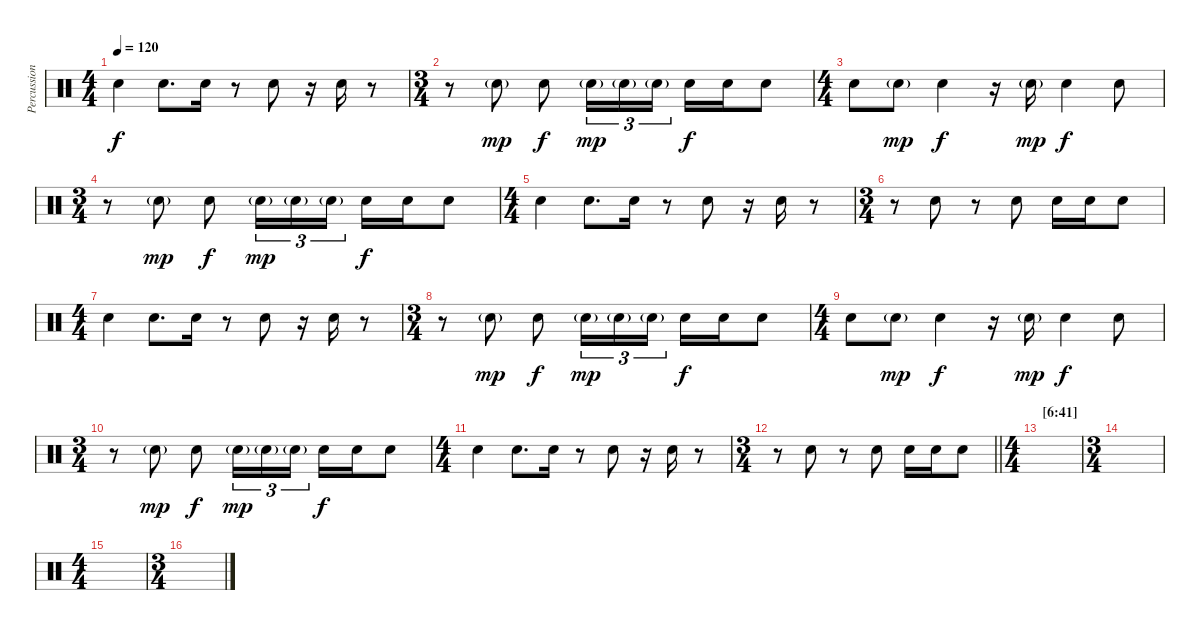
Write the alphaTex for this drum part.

\track ("Percussion" "Percussion") {instrument percussion}
\staff {score}
\articulation defaults
\ts (4 4)
\tempo 120
\clef neutral
\ks c "Electric Snare (hit)".4{dy f} "Electric Snare (hit)".8{d} "Electric Snare (hit)".16
r.8 "Electric Snare (hit)".8 r.16 "Electric Snare (hit)".16 r.8 |
\ts (3 4)
r.8 "Electric Snare (hit)"{g}.8{dy mp} "Electric Snare (hit)".8{dy f} "Electric Snare (hit)"{g}.16{tu (3 2) dy mp} "Electric Snare (hit)"{g}.16{tu (3 2)} "Electric Snare (hit)"{g}.16{tu (3 2)} "Electric Snare (hit)".16{dy f} "Electric Snare (hit)".16 "Electric Snare (hit)".8 |
\ts (4 4)
"Electric Snare (hit)".8 "Electric Snare (hit)"{g}.8{dy mp} "Electric Snare (hit)".4{dy f} r.16 "Electric Snare (hit)"{g}.16{dy mp} "Electric Snare (hit)".4{dy f} "Electric Snare (hit)".8 |
\ts (3 4)
r.8 "Electric Snare (hit)"{g}.8{dy mp} "Electric Snare (hit)".8{dy f} "Electric Snare (hit)"{g}.16{tu (3 2) dy mp} "Electric Snare (hit)"{g}.16{tu (3 2)} "Electric Snare (hit)"{g}.16{tu (3 2)} "Electric Snare (hit)".16{dy f} "Electric Snare (hit)".16 "Electric Snare (hit)".8 |
\ts (4 4)
"Electric Snare (hit)".4 "Electric Snare (hit)".8{d} "Electric Snare (hit)".16 r.8 "Electric Snare (hit)".8 r.16 "Electric Snare (hit)".16 r.8 |
\ts (3 4)
r.8 "Electric Snare (hit)".8 r.8 "Electric Snare (hit)".8 "Electric Snare (hit)".16 "Electric Snare (hit)".16 "Electric Snare (hit)".8 |
\ts (4 4)
"Electric Snare (hit)".4 "Electric Snare (hit)".8{d} "Electric Snare (hit)".16 r.8 "Electric Snare (hit)".8 r.16 "Electric Snare (hit)".16 r.8 |
\ts (3 4)
r.8 "Electric Snare (hit)"{g}.8{dy mp} "Electric Snare (hit)".8{dy f} "Electric Snare (hit)"{g}.16{tu (3 2) dy mp} "Electric Snare (hit)"{g}.16{tu (3 2)} "Electric Snare (hit)"{g}.16{tu (3 2)} "Electric Snare (hit)".16{dy f} "Electric Snare (hit)".16 "Electric Snare (hit)".8 |
\ts (4 4)
"Electric Snare (hit)".8 "Electric Snare (hit)"{g}.8{dy mp} "Electric Snare (hit)".4{dy f} r.16 "Electric Snare (hit)"{g}.16{dy mp} "Electric Snare (hit)".4{dy f} "Electric Snare (hit)".8 |
\ts (3 4)
r.8 "Electric Snare (hit)"{g}.8{dy mp} "Electric Snare (hit)".8{dy f} "Electric Snare (hit)"{g}.16{tu (3 2) dy mp} "Electric Snare (hit)"{g}.16{tu (3 2)} "Electric Snare (hit)"{g}.16{tu (3 2)} "Electric Snare (hit)".16{dy f} "Electric Snare (hit)".16 "Electric Snare (hit)".8 |
\ts (4 4)
"Electric Snare (hit)".4 "Electric Snare (hit)".8{d} "Electric Snare (hit)".16 r.8 "Electric Snare (hit)".8 r.16 "Electric Snare (hit)".16 r.8 |
\ts (3 4)
\barLineRight lightlight
r.8 "Electric Snare (hit)".8 r.8 "Electric Snare (hit)".8 "Electric Snare (hit)".16 "Electric Snare (hit)".16 "Electric Snare (hit)".8 |
\ts (4 4)
\section ("" "[6:41]")
|
\ts (3 4)
|
\ts (4 4)
|
\ts (3 4)
